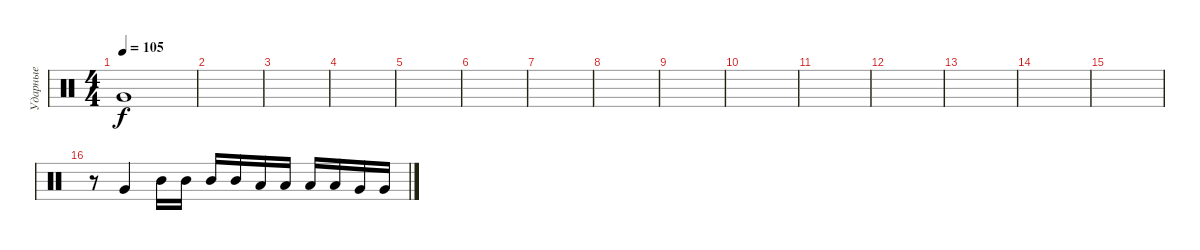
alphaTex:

\track ("Ударные" "Ударные") {instrument percussion}
\staff {score}
\articulation defaults
\ts (4 4)
\tempo 105
\clef neutral
\ks c "Very Low Tom (hit)".1{dy f}
|
|
|
|
|
|
|
|
|
|
|
|
|
|
|
r.8 "Very Low Tom (hit)".4 "Mid Tom (hit)".16 "Mid Tom (hit)".16 "Mid Tom (hit)".16 "Mid Tom (hit)".16 "Low Tom (hit)".16 "Low Tom (hit)".16 "Low Tom (hit)".16 "Low Tom (hit)".16 "Very Low Tom (hit)".16 "Very Low Tom (hit)".16
